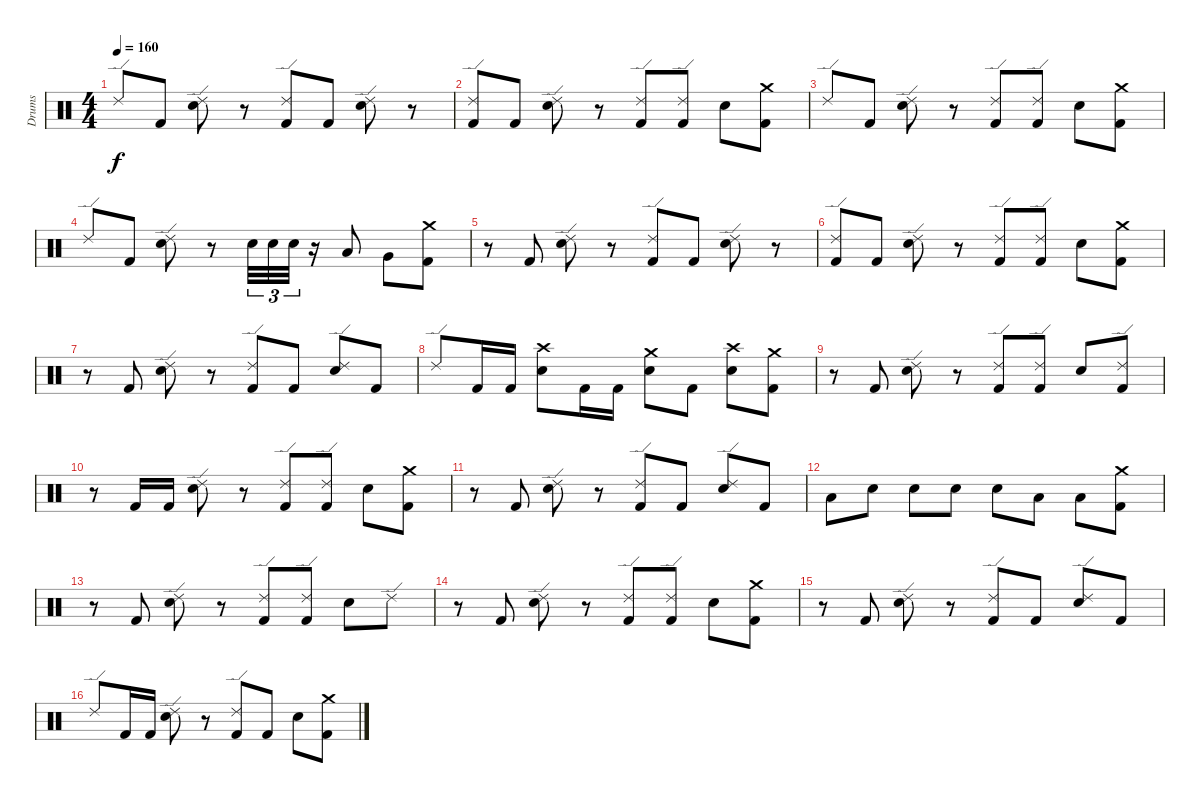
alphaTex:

\track ("Drums" "Drums") {instrument percussion}
\staff {score}
\articulation defaults
\ts (4 4)
\tempo 160
\clef neutral
\ks c "Ride (edge) 2".8{dy f} "Kick (hit) 2".8
("Ride (edge) 2" "Snare (hit) 2").8 r.8 ("Ride (edge) 2" "Kick (hit) 2").8 "Kick (hit) 2".8 ("Ride (edge) 2" "Snare (hit) 2").8 r.8 |
("Ride (edge) 2" "Kick (hit) 2").8 "Kick (hit) 2".8 ("Ride (edge) 2" "Snare (hit) 2").8 r.8 ("Ride (edge) 2" "Kick (hit) 2").8 ("Ride (edge) 2" "Kick (hit) 2").8 "Snare (hit) 2".8 ("Crash medium (hit)" "Kick (hit) 2").8 |
"Ride (edge) 2".8 "Kick (hit) 2".8 ("Ride (edge) 2" "Snare (hit) 2").8 r.8 ("Ride (edge) 2" "Kick (hit) 2").8 ("Ride (edge) 2" "Kick (hit) 2").8 "Snare (hit) 2".8 ("Crash medium (hit)" "Kick (hit) 2").8 |
"Ride (edge) 2".8 "Kick (hit) 2".8 ("Ride (edge) 2" "Snare (hit) 2").8 r.8 "Snare (hit) 2".32{tu (3 2)} "Snare (hit) 2".32{tu (3 2)} "Snare (hit) 2".32{tu (3 2)} r.16 "Low Tom (hit)".8 "Very Low Tom (hit)".8 ("Crash medium (hit)" "Kick (hit) 2").8 |
r.8 "Kick (hit) 2".8 ("Ride (edge) 2" "Snare (hit) 2").8 r.8 ("Ride (edge) 2" "Kick (hit) 2").8 "Kick (hit) 2".8 ("Ride (edge) 2" "Snare (hit) 2").8 r.8 |
("Ride (edge) 2" "Kick (hit) 2").8 "Kick (hit) 2".8 ("Ride (edge) 2" "Snare (hit) 2").8 r.8 ("Ride (edge) 2" "Kick (hit) 2").8 ("Ride (edge) 2" "Kick (hit) 2").8 "Snare (hit) 2".8 ("Crash medium (hit)" "Kick (hit) 2").8 |
r.8 "Kick (hit) 2".8 ("Ride (edge) 2" "Snare (hit) 2").8 r.8 ("Ride (edge) 2" "Kick (hit) 2").8 "Kick (hit) 2".8 ("Ride (edge) 2" "Snare (hit) 2").8 "Kick (hit) 2".8 |
"Ride (edge) 2".8 "Kick (hit) 2".16 "Kick (hit) 2".16 ("Crash high (hit)" "Snare (hit) 2").8 "Kick (hit) 2".16 "Kick (hit) 2".16 ("Crash medium (hit)" "Snare (hit) 2").8 "Kick (hit) 2".8 ("Crash high (hit)" "Snare (hit) 2").8 ("Crash medium (hit)" "Kick (hit) 2").8 |
r.8 "Kick (hit) 2".8 ("Ride (edge) 2" "Snare (hit) 2").8 r.8 ("Ride (edge) 2" "Kick (hit) 2").8 ("Ride (edge) 2" "Kick (hit) 2").8 "Snare (hit) 2".8 ("Ride (edge) 2" "Kick (hit) 2").8 |
r.8 "Kick (hit) 2".16 "Kick (hit) 2".16 ("Ride (edge) 2" "Snare (hit) 2").8 r.8 ("Ride (edge) 2" "Kick (hit) 2").8 ("Ride (edge) 2" "Kick (hit) 2").8 "Snare (hit) 2".8 ("Crash medium (hit)" "Kick (hit) 2").8 |
r.8 "Kick (hit) 2".8 ("Ride (edge) 2" "Snare (hit) 2").8 r.8 ("Ride (edge) 2" "Kick (hit) 2").8 "Kick (hit) 2".8 ("Ride (edge) 2" "Snare (hit) 2").8 "Kick (hit) 2".8 |
"Low Tom (hit)".8 "Snare (hit) 2".8 "Snare (hit) 2".8 "Snare (hit) 2".8 "Snare (hit) 2".8 "Low Tom (hit)".8 "Low Tom (hit)".8 ("Crash medium (hit)" "Kick (hit) 2").8 |
r.8 "Kick (hit) 2".8 ("Ride (edge) 2" "Snare (hit) 2").8 r.8 ("Ride (edge) 2" "Kick (hit) 2").8 ("Ride (edge) 2" "Kick (hit) 2").8 "Snare (hit) 2".8 "Ride (edge) 2".8 |
r.8 "Kick (hit) 2".8 ("Ride (edge) 2" "Snare (hit) 2").8 r.8 ("Ride (edge) 2" "Kick (hit) 2").8 ("Ride (edge) 2" "Kick (hit) 2").8 "Snare (hit) 2".8 ("Crash medium (hit)" "Kick (hit) 2").8 |
r.8 "Kick (hit) 2".8 ("Ride (edge) 2" "Snare (hit) 2").8 r.8 ("Ride (edge) 2" "Kick (hit) 2").8 "Kick (hit) 2".8 ("Ride (edge) 2" "Snare (hit) 2").8 "Kick (hit) 2".8 |
"Ride (edge) 2".8 "Kick (hit) 2".16 "Kick (hit) 2".16 ("Ride (edge) 2" "Snare (hit) 2").8 r.8 ("Ride (edge) 2" "Kick (hit) 2").8 "Kick (hit) 2".8 "Snare (hit) 2".8 ("Crash medium (hit)" "Kick (hit) 2").8
